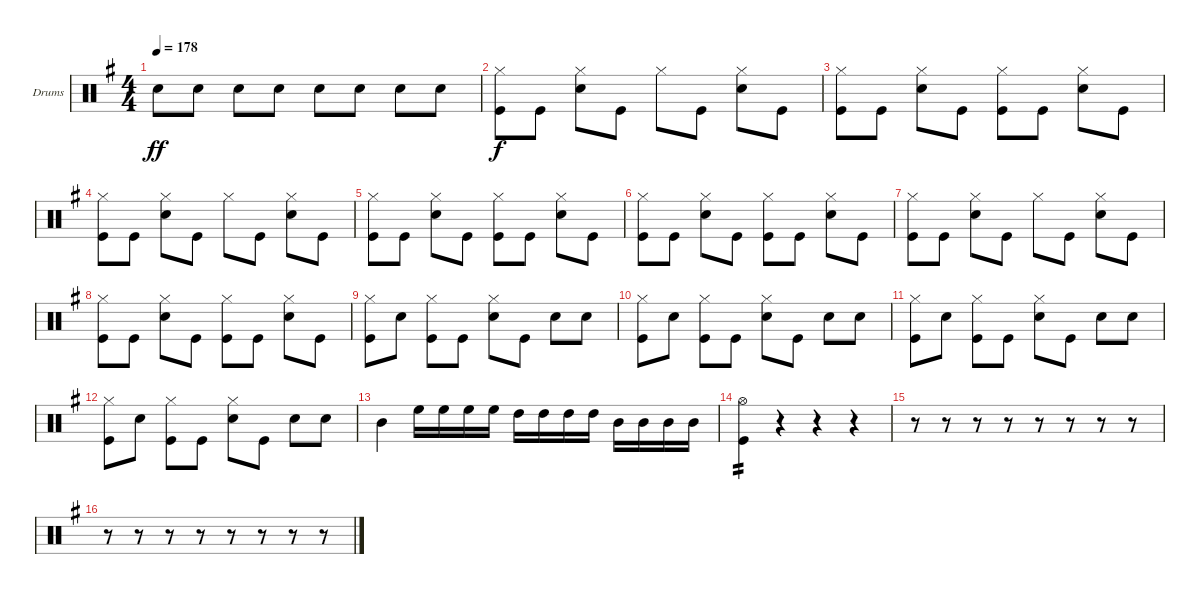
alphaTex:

\bracketExtendMode groupsimilarinstruments
\firstSystemTrackNameOrientation horizontal
\otherSystemsTrackNameOrientation horizontal
\track ("Drumkit" "Drums") {instrument percussion}
\staff {score}
\articulation defaults
\ts (4 4)
\tempo 178
\clef neutral
\ks eminor "Snare (hit) 2".8{dy ff} "Snare (hit) 2".8 "Snare (hit) 2".8 "Snare (hit) 2".8 "Snare (hit) 2".8 "Snare (hit) 2".8 "Snare (hit) 2".8 "Snare (hit) 2".8
|
("Hi-Hat (closed)" "Kick (hit)").8{dy f} "Kick (hit)".8 ("Hi-Hat (closed)" "Snare (hit) 2").8 "Kick (hit)".8 "Hi-Hat (closed)".8 "Kick (hit)".8 ("Hi-Hat (closed)" "Snare (hit) 2").8 "Kick (hit)".8 |
("Hi-Hat (closed)" "Kick (hit)").8 "Kick (hit)".8 ("Hi-Hat (closed)" "Snare (hit) 2").8 "Kick (hit)".8 ("Hi-Hat (closed)" "Kick (hit)").8 "Kick (hit)".8 ("Hi-Hat (closed)" "Snare (hit) 2").8 "Kick (hit)".8 |
("Hi-Hat (closed)" "Kick (hit)").8 "Kick (hit)".8 ("Hi-Hat (closed)" "Snare (hit) 2").8 "Kick (hit)".8 "Hi-Hat (closed)".8 "Kick (hit)".8 ("Hi-Hat (closed)" "Snare (hit) 2").8 "Kick (hit)".8 |
("Hi-Hat (closed)" "Kick (hit)").8 "Kick (hit)".8 ("Hi-Hat (closed)" "Snare (hit) 2").8 "Kick (hit)".8 ("Hi-Hat (closed)" "Kick (hit)").8 "Kick (hit)".8 ("Hi-Hat (closed)" "Snare (hit) 2").8 "Kick (hit)".8 |
("Hi-Hat (closed)" "Kick (hit)").8 "Kick (hit)".8 ("Hi-Hat (closed)" "Snare (hit) 2").8 "Kick (hit)".8 ("Hi-Hat (closed)" "Kick (hit)").8 "Kick (hit)".8 ("Hi-Hat (closed)" "Snare (hit) 2").8 "Kick (hit)".8 |
("Hi-Hat (closed)" "Kick (hit)").8 "Kick (hit)".8 ("Hi-Hat (closed)" "Snare (hit) 2").8 "Kick (hit)".8 "Hi-Hat (closed)".8 "Kick (hit)".8 ("Hi-Hat (closed)" "Snare (hit) 2").8 "Kick (hit)".8 |
("Hi-Hat (closed)" "Kick (hit)").8 "Kick (hit)".8 ("Hi-Hat (closed)" "Snare (hit) 2").8 "Kick (hit)".8 ("Hi-Hat (closed)" "Kick (hit)").8 "Kick (hit)".8 ("Hi-Hat (closed)" "Snare (hit) 2").8 "Kick (hit)".8 |
("Hi-Hat (closed)" "Kick (hit)").8 "Snare (hit) 2".8 ("Hi-Hat (closed)" "Kick (hit)").8 "Kick (hit)".8 ("Hi-Hat (closed)" "Snare (hit) 2").8 "Kick (hit)".8 "Snare (hit) 2".8 "Snare (hit) 2".8 |
("Hi-Hat (closed)" "Kick (hit)").8 "Snare (hit) 2".8 ("Hi-Hat (closed)" "Kick (hit)").8 "Kick (hit)".8 ("Hi-Hat (closed)" "Snare (hit) 2").8 "Kick (hit)".8 "Snare (hit) 2".8 "Snare (hit) 2".8 |
("Hi-Hat (closed)" "Kick (hit)").8 "Snare (hit) 2".8 ("Hi-Hat (closed)" "Kick (hit)").8 "Kick (hit)".8 ("Hi-Hat (closed)" "Snare (hit) 2").8 "Kick (hit)".8 "Snare (hit) 2".8 "Snare (hit) 2".8 |
("Hi-Hat (closed)" "Kick (hit)").8 "Snare (hit) 2".8 ("Hi-Hat (closed)" "Kick (hit)").8 "Kick (hit)".8 ("Hi-Hat (closed)" "Snare (hit) 2").8 "Kick (hit)".8 "Snare (hit) 2".8 "Snare (hit) 2".8 |
"Mid Tom (hit)".4 "High Floor Tom (hit)".16 "High Floor Tom (hit)".16 "High Floor Tom (hit)".16 "High Floor Tom (hit)".16 "High Tom (hit)".16 "High Tom (hit)".16 "High Tom (hit)".16 "High Tom (hit)".16 "Mid Tom (hit)".16 "Mid Tom (hit)".16 "Mid Tom (hit)".16 "Mid Tom (hit)".16 |
("Hi-Hat (open)" "Kick (hit)").4{tp 2} r.4 r.4 r.4 |
r.8 r.8 r.8 r.8 r.8 r.8 r.8 r.8 |
r.8 r.8 r.8 r.8 r.8 r.8 r.8 r.8
